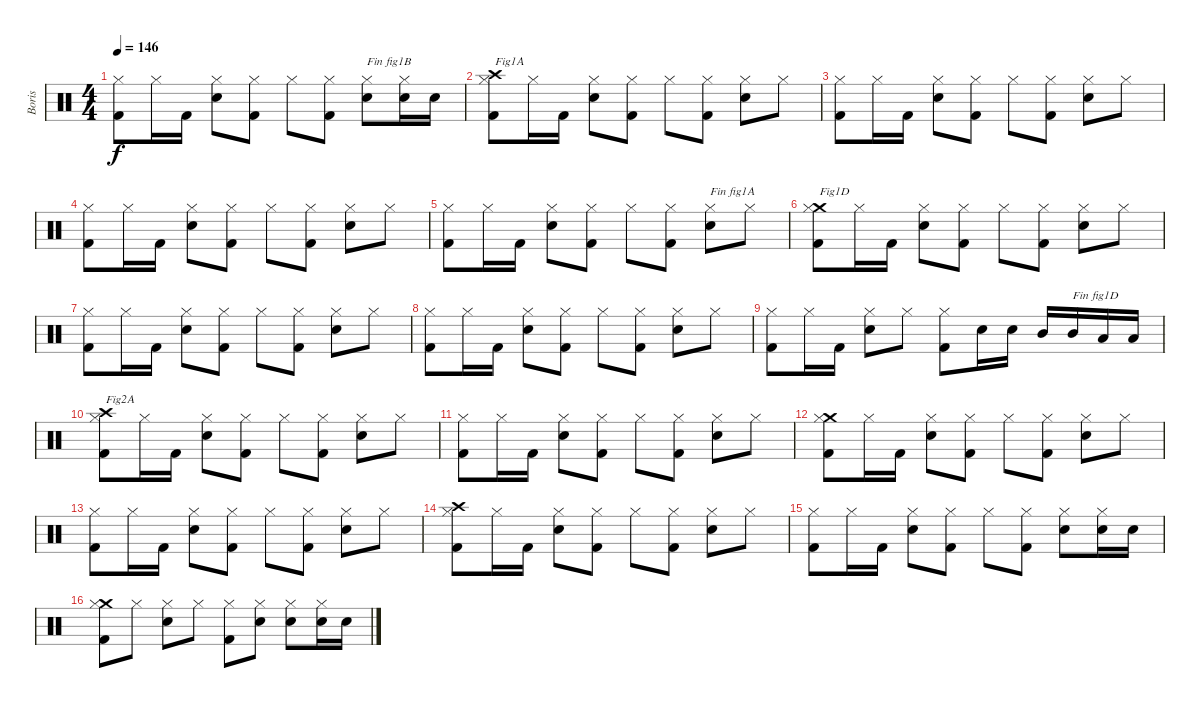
\track ("Boris" "Boris") {instrument percussion}
\staff {score}
\articulation defaults
\ts (4 4)
\tempo 146
\clef neutral
\ks c
("Kick (hit) 2" "Hi-Hat (closed)").8{dy f} "Hi-Hat (closed)".16 "Kick (hit) 2".16 ("Electric Snare (hit)" "Hi-Hat (closed)").8 ("Kick (hit) 2" "Hi-Hat (closed)").8 "Hi-Hat (closed)".8 ("Kick (hit) 2" "Hi-Hat (closed)").8 ("Electric Snare (hit)" "Hi-Hat (closed)").8{txt "Fin fig1B"} ("Electric Snare (hit)" "Hi-Hat (closed)").16 "Electric Snare (hit)".16 |
("Kick (hit) 2" "Crash high (hit)" "Hi-Hat (closed)").8{txt "Fig1A"} "Hi-Hat (closed)".16 "Kick (hit) 2".16 ("Electric Snare (hit)" "Hi-Hat (closed)").8 ("Kick (hit) 2" "Hi-Hat (closed)").8 "Hi-Hat (closed)".8 ("Kick (hit) 2" "Hi-Hat (closed)").8 ("Electric Snare (hit)" "Hi-Hat (closed)").8 "Hi-Hat (closed)".8 |
("Kick (hit) 2" "Hi-Hat (closed)").8 "Hi-Hat (closed)".16 "Kick (hit) 2".16 ("Electric Snare (hit)" "Hi-Hat (closed)").8 ("Kick (hit) 2" "Hi-Hat (closed)").8 "Hi-Hat (closed)".8 ("Kick (hit) 2" "Hi-Hat (closed)").8 ("Electric Snare (hit)" "Hi-Hat (closed)").8 "Hi-Hat (closed)".8 |
("Kick (hit) 2" "Hi-Hat (closed)").8 "Hi-Hat (closed)".16 "Kick (hit) 2".16 ("Electric Snare (hit)" "Hi-Hat (closed)").8 ("Kick (hit) 2" "Hi-Hat (closed)").8 "Hi-Hat (closed)".8 ("Kick (hit) 2" "Hi-Hat (closed)").8 ("Electric Snare (hit)" "Hi-Hat (closed)").8 "Hi-Hat (closed)".8 |
("Kick (hit) 2" "Hi-Hat (closed)").8 "Hi-Hat (closed)".16 "Kick (hit) 2".16 ("Electric Snare (hit)" "Hi-Hat (closed)").8 ("Kick (hit) 2" "Hi-Hat (closed)").8 "Hi-Hat (closed)".8 ("Kick (hit) 2" "Hi-Hat (closed)").8 ("Electric Snare (hit)" "Hi-Hat (closed)").8{txt "Fin fig1A"} "Hi-Hat (closed)".8 |
("Kick (hit) 2" "Crash medium (hit)" "Hi-Hat (closed)").8{txt "Fig1D"} "Hi-Hat (closed)".16 "Kick (hit) 2".16 ("Electric Snare (hit)" "Hi-Hat (closed)").8 ("Kick (hit) 2" "Hi-Hat (closed)").8 "Hi-Hat (closed)".8 ("Kick (hit) 2" "Hi-Hat (closed)").8 ("Electric Snare (hit)" "Hi-Hat (closed)").8 "Hi-Hat (closed)".8 |
("Kick (hit) 2" "Hi-Hat (closed)").8 "Hi-Hat (closed)".16 "Kick (hit) 2".16 ("Electric Snare (hit)" "Hi-Hat (closed)").8 ("Kick (hit) 2" "Hi-Hat (closed)").8 "Hi-Hat (closed)".8 ("Kick (hit) 2" "Hi-Hat (closed)").8 ("Electric Snare (hit)" "Hi-Hat (closed)").8 "Hi-Hat (closed)".8 |
("Kick (hit) 2" "Hi-Hat (closed)").8 "Hi-Hat (closed)".16 "Kick (hit) 2".16 ("Electric Snare (hit)" "Hi-Hat (closed)").8 ("Kick (hit) 2" "Hi-Hat (closed)").8 "Hi-Hat (closed)".8 ("Kick (hit) 2" "Hi-Hat (closed)").8 ("Electric Snare (hit)" "Hi-Hat (closed)").8 "Hi-Hat (closed)".8 |
("Kick (hit) 2" "Hi-Hat (closed)").8 "Hi-Hat (closed)".16 "Kick (hit) 2".16 ("Electric Snare (hit)" "Hi-Hat (closed)").8 "Hi-Hat (closed)".8 ("Kick (hit) 2" "Hi-Hat (closed)").8 "Electric Snare (hit)".16 "Electric Snare (hit)".16 "Mid Tom (hit)".16 "Mid Tom (hit)".16{txt "Fin fig1D"} "Low Tom (hit)".16 "Low Tom (hit)".16 |
("Kick (hit) 2" "Crash high (hit)" "Hi-Hat (closed)").8{txt "Fig2A"} "Hi-Hat (closed)".16 "Kick (hit) 2".16 ("Electric Snare (hit)" "Hi-Hat (closed)").8 ("Kick (hit) 2" "Hi-Hat (closed)").8 "Hi-Hat (closed)".8 ("Kick (hit) 2" "Hi-Hat (closed)").8 ("Electric Snare (hit)" "Hi-Hat (closed)").8 "Hi-Hat (closed)".8 |
("Kick (hit) 2" "Hi-Hat (closed)").8 "Hi-Hat (closed)".16 "Kick (hit) 2".16 ("Electric Snare (hit)" "Hi-Hat (closed)").8 ("Kick (hit) 2" "Hi-Hat (closed)").8 "Hi-Hat (closed)".8 ("Kick (hit) 2" "Hi-Hat (closed)").8 ("Electric Snare (hit)" "Hi-Hat (closed)").8 "Hi-Hat (closed)".8 |
("Kick (hit) 2" "Crash medium (hit)" "Hi-Hat (closed)").8 "Hi-Hat (closed)".16 "Kick (hit) 2".16 ("Electric Snare (hit)" "Hi-Hat (closed)").8 ("Kick (hit) 2" "Hi-Hat (closed)").8 "Hi-Hat (closed)".8 ("Kick (hit) 2" "Hi-Hat (closed)").8 ("Electric Snare (hit)" "Hi-Hat (closed)").8 "Hi-Hat (closed)".8 |
("Kick (hit) 2" "Hi-Hat (closed)").8 "Hi-Hat (closed)".16 "Kick (hit) 2".16 ("Electric Snare (hit)" "Hi-Hat (closed)").8 ("Kick (hit) 2" "Hi-Hat (closed)").8 "Hi-Hat (closed)".8 ("Kick (hit) 2" "Hi-Hat (closed)").8 ("Electric Snare (hit)" "Hi-Hat (closed)").8 "Hi-Hat (closed)".8 |
("Kick (hit) 2" "Crash high (hit)" "Hi-Hat (closed)").8 "Hi-Hat (closed)".16 "Kick (hit) 2".16 ("Electric Snare (hit)" "Hi-Hat (closed)").8 ("Kick (hit) 2" "Hi-Hat (closed)").8 "Hi-Hat (closed)".8 ("Kick (hit) 2" "Hi-Hat (closed)").8 ("Electric Snare (hit)" "Hi-Hat (closed)").8 "Hi-Hat (closed)".8 |
("Kick (hit) 2" "Hi-Hat (closed)").8 "Hi-Hat (closed)".16 "Kick (hit) 2".16 ("Electric Snare (hit)" "Hi-Hat (closed)").8 ("Kick (hit) 2" "Hi-Hat (closed)").8 "Hi-Hat (closed)".8 ("Kick (hit) 2" "Hi-Hat (closed)").8 ("Electric Snare (hit)" "Hi-Hat (closed)").8 ("Electric Snare (hit)" "Hi-Hat (closed)").16 "Electric Snare (hit)".16 |
("Kick (hit) 2" "Crash medium (hit)" "Hi-Hat (closed)").8 "Hi-Hat (closed)".8 ("Electric Snare (hit)" "Hi-Hat (closed)").8 "Hi-Hat (closed)".8 ("Kick (hit) 2" "Hi-Hat (closed)").8 ("Electric Snare (hit)" "Hi-Hat (closed)").8 ("Electric Snare (hit)" "Hi-Hat (closed)").8 ("Electric Snare (hit)" "Hi-Hat (closed)").16 "Electric Snare (hit)".16
